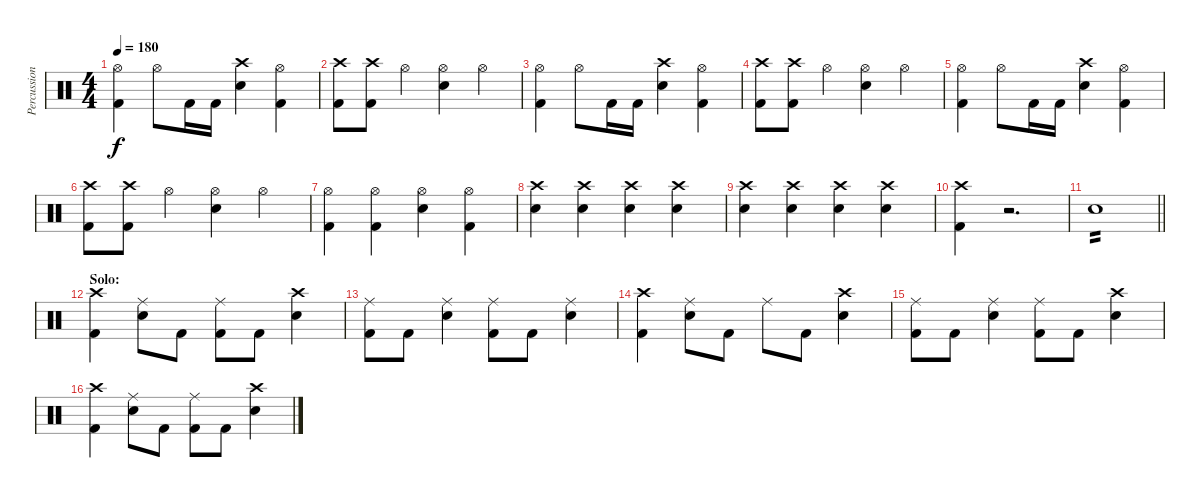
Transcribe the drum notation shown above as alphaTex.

\track ("Percussion" "Percussion") {instrument percussion}
\staff {score}
\articulation defaults
\ts (4 4)
\tempo 180
\clef neutral
\ks c
("Hi-Hat (open)" "Kick (hit) 2").4{dy f} "Hi-Hat (open)".8 "Kick (hit) 2".16 "Kick (hit) 2".16 ("Crash high (hit)" "Snare (hit) 2").4 ("Hi-Hat (open)" "Kick (hit) 2").4 |
("Crash high (hit)" "Kick (hit) 2").8 ("Crash high (hit)" "Kick (hit) 2").8 "Hi-Hat (open)".4 ("Hi-Hat (open)" "Snare (hit) 2").4 "Hi-Hat (open)".4 |
("Hi-Hat (open)" "Kick (hit) 2").4 "Hi-Hat (open)".8 "Kick (hit) 2".16 "Kick (hit) 2".16 ("Crash high (hit)" "Snare (hit) 2").4 ("Hi-Hat (open)" "Kick (hit) 2").4 |
("Crash high (hit)" "Kick (hit) 2").8 ("Crash high (hit)" "Kick (hit) 2").8 "Hi-Hat (open)".4 ("Hi-Hat (open)" "Snare (hit) 2").4 "Hi-Hat (open)".4 |
("Hi-Hat (open)" "Kick (hit) 2").4 "Hi-Hat (open)".8 "Kick (hit) 2".16 "Kick (hit) 2".16 ("Crash high (hit)" "Snare (hit) 2").4 ("Hi-Hat (open)" "Kick (hit) 2").4 |
("Crash high (hit)" "Kick (hit) 2").8 ("Crash high (hit)" "Kick (hit) 2").8 "Hi-Hat (open)".4 ("Hi-Hat (open)" "Snare (hit) 2").4 "Hi-Hat (open)".4 |
("Hi-Hat (open)" "Kick (hit) 2").4 ("Hi-Hat (open)" "Kick (hit) 2").4 ("Hi-Hat (open)" "Snare (hit) 2").4 ("Hi-Hat (open)" "Kick (hit) 2").4 |
("Crash high (hit)" "Snare (hit) 2").4 ("Crash high (hit)" "Snare (hit) 2").4 ("Crash high (hit)" "Snare (hit) 2").4 ("Crash high (hit)" "Snare (hit) 2").4 |
("Crash high (hit)" "Snare (hit) 2").4 ("Crash high (hit)" "Snare (hit) 2").4 ("Crash high (hit)" "Snare (hit) 2").4 ("Crash high (hit)" "Snare (hit) 2").4 |
("Crash high (hit)" "Kick (hit) 2").4 r.2{d} |
\barLineRight lightlight "Snare (hit) 2".1{tp 2}
|
\section ("" "Solo:")
("Crash high (hit)" "Kick (hit) 2").4 ("Ride (middle)" "Snare (hit) 2").8 "Kick (hit) 2".8 ("Ride (middle)" "Kick (hit) 2").8 "Kick (hit) 2".8 ("Crash high (hit)" "Snare (hit) 2").4 |
("Ride (middle)" "Kick (hit) 2").8 "Kick (hit) 2".8 ("Ride (middle)" "Snare (hit) 2").4 ("Ride (middle)" "Kick (hit) 2").8 "Kick (hit) 2".8 ("Ride (middle)" "Snare (hit) 2").4 |
("Crash high (hit)" "Kick (hit) 2").4 ("Ride (middle)" "Snare (hit) 2").8 "Kick (hit) 2".8 "Ride (middle)".8 "Kick (hit) 2".8 ("Crash high (hit)" "Snare (hit) 2").4 |
("Ride (middle)" "Kick (hit) 2").8 "Kick (hit) 2".8 ("Ride (middle)" "Snare (hit) 2").4 ("Ride (middle)" "Kick (hit) 2").8 "Kick (hit) 2".8 ("Crash high (hit)" "Snare (hit) 2").4 |
("Crash high (hit)" "Kick (hit) 2").4 ("Ride (middle)" "Snare (hit) 2").8 "Kick (hit) 2".8 ("Ride (middle)" "Kick (hit) 2").8 "Kick (hit) 2".8 ("Crash high (hit)" "Snare (hit) 2").4
